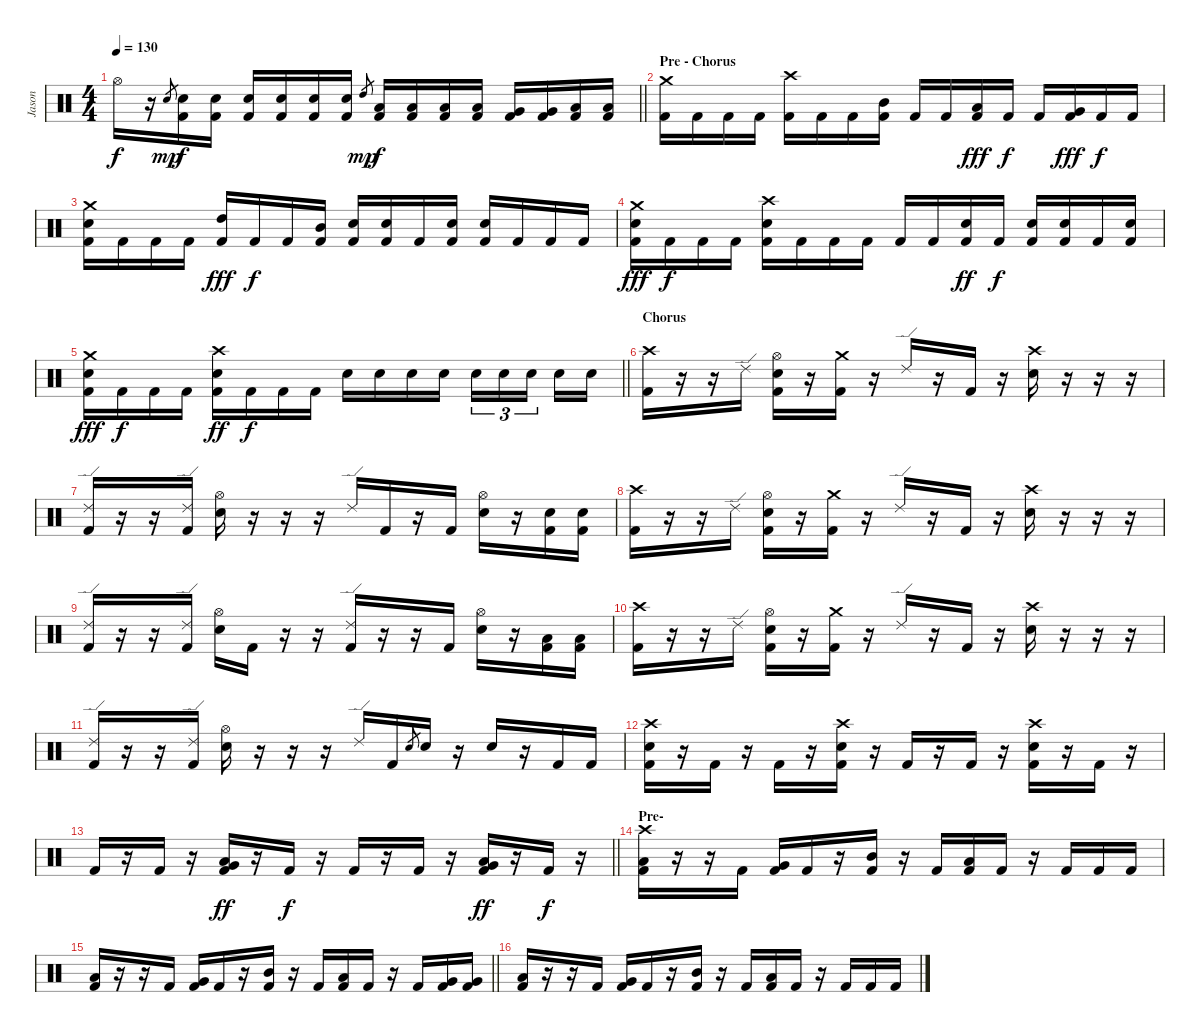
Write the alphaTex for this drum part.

\track ("Jason" "Jason") {instrument percussion}
\staff {score}
\articulation defaults
\ts (4 4)
\tempo 130
\clef neutral
\barLineRight lightlight
\ks c "Hi-Hat (open)".16{dy f}
r.16 "Electric Snare (hit)".8{gr dy mp} ("Electric Snare (hit)" "Kick (hit) 2").16{dy f} ("Electric Snare (hit)" "Kick (hit) 2").16 ("Electric Snare (hit)" "Kick (hit) 2").16 ("Electric Snare (hit)" "Kick (hit) 2").16 ("Electric Snare (hit)" "Kick (hit) 2").16 ("Electric Snare (hit)" "Kick (hit) 2").16 "High Tom (hit)".8{gr dy mp} ("Low Tom (hit)" "Kick (hit) 2").16{dy f} ("Low Tom (hit)" "Kick (hit) 2").16 ("Low Tom (hit)" "Kick (hit) 2").16 ("Low Tom (hit)" "Kick (hit) 2").16 ("Very Low Tom (hit)" "Kick (hit) 2").16 ("Very Low Tom (hit)" "Kick (hit) 2").16 ("Low Floor Tom (hit)" "Kick (hit) 2").16 ("Low Floor Tom (hit)" "Kick (hit) 2").16 |
\section ("" "Pre - Chorus")
("Crash medium (hit)" "Kick (hit) 2").16 "Kick (hit) 2".16 "Kick (hit) 2".16 "Kick (hit) 2".16 ("Crash high (hit)" "Kick (hit) 2").16 "Kick (hit) 2".16 "Kick (hit) 2".16 ("Mid Tom (hit)" "Kick (hit) 2").16 "Kick (hit) 2".16 "Kick (hit) 2".16 ("Low Tom (hit)" "Kick (hit) 2").16{dy fff} "Kick (hit) 2".16{dy f} "Kick (hit) 2".16 ("Very Low Tom (hit)" "Kick (hit) 2").16{dy fff} "Kick (hit) 2".16{dy f} "Kick (hit) 2".16 |
("Crash medium (hit)" "Electric Snare (hit)" "Kick (hit) 2").16 "Kick (hit) 2".16 "Kick (hit) 2".16 "Kick (hit) 2".16 ("High Tom (hit)" "Kick (hit) 2").16{dy fff} "Kick (hit) 2".16{dy f} "Kick (hit) 2".16 ("Mid Tom (hit)" "Kick (hit) 2").16 ("Electric Snare (hit)" "Kick (hit) 2").16 ("Electric Snare (hit)" "Kick (hit) 2").16 "Kick (hit) 2".16 ("Electric Snare (hit)" "Kick (hit) 2").16 ("Electric Snare (hit)" "Kick (hit) 2").16 "Kick (hit) 2".16 "Kick (hit) 2".16 "Kick (hit) 2".16 |
("Crash medium (hit)" "Electric Snare (hit)" "Kick (hit) 2").16{dy fff} "Kick (hit) 2".16{dy f} "Kick (hit) 2".16 "Kick (hit) 2".16 ("Crash high (hit)" "Electric Snare (hit)" "Kick (hit) 2").16 "Kick (hit) 2".16 "Kick (hit) 2".16 "Kick (hit) 2".16 "Kick (hit) 2".16 "Kick (hit) 2".16 ("Electric Snare (hit)" "Kick (hit) 2").16{dy ff} "Kick (hit) 2".16{dy f} ("Electric Snare (hit)" "Kick (hit) 2").16 ("Electric Snare (hit)" "Kick (hit) 2").16 "Kick (hit) 2".16 ("Electric Snare (hit)" "Kick (hit) 2").16 |
\barLineRight lightlight
("Crash medium (hit)" "Electric Snare (hit)" "Kick (hit) 2").16{dy fff} "Kick (hit) 2".16{dy f} "Kick (hit) 2".16 "Kick (hit) 2".16 ("Crash high (hit)" "Electric Snare (hit)" "Kick (hit) 2").16{dy ff} "Kick (hit) 2".16{dy f} "Kick (hit) 2".16 "Kick (hit) 2".16 "Electric Snare (hit)".16 "Electric Snare (hit)".16 "Electric Snare (hit)".16 "Electric Snare (hit)".16 "Electric Snare (hit)".16{tu (3 2)} "Electric Snare (hit)".16{tu (3 2)} "Electric Snare (hit)".16{tu (3 2) beam splitsecondary} "Electric Snare (hit)".16 "Electric Snare (hit)".16 |
\section ("" "Chorus")
("Crash high (hit)" "Kick (hit) 2").16 r.16 r.16 "Ride (edge) 2".16 ("Hi-Hat (open)" "Electric Snare (hit)" "Kick (hit) 2").16 r.16 ("Crash medium (hit)" "Kick (hit) 2").16 r.16 "Ride (edge) 2".16 r.16 "Kick (hit) 2".16 r.16 ("Crash high (hit)" "Electric Snare (hit)").16 r.16 r.16 r.16 |
("Ride (edge) 2" "Kick (hit) 2").16 r.16 r.16 ("Ride (edge) 2" "Kick (hit) 2").16 ("Hi-Hat (open)" "Electric Snare (hit)").16 r.16 r.16 r.16 "Ride (edge) 2".16 "Kick (hit) 2".16 r.16 "Kick (hit) 2".16 ("Hi-Hat (open)" "Electric Snare (hit)").16 r.16 ("Electric Snare (hit)" "Kick (hit) 2").16 ("Electric Snare (hit)" "Kick (hit) 2").16 |
("Crash high (hit)" "Kick (hit) 2").16 r.16 r.16 "Ride (edge) 2".16 ("Hi-Hat (open)" "Electric Snare (hit)" "Kick (hit) 2").16 r.16 ("Crash medium (hit)" "Kick (hit) 2").16 r.16 "Ride (edge) 2".16 r.16 "Kick (hit) 2".16 r.16 ("Crash high (hit)" "Electric Snare (hit)").16 r.16 r.16 r.16 |
("Ride (edge) 2" "Kick (hit) 2").16 r.16 r.16 ("Ride (edge) 2" "Kick (hit) 2").16 ("Hi-Hat (open)" "Electric Snare (hit)").16 "Kick (hit) 2".16 r.16 r.16 ("Ride (edge) 2" "Kick (hit) 2").16 r.16 r.16 "Kick (hit) 2".16 ("Hi-Hat (open)" "Electric Snare (hit)").16 r.16 ("Low Tom (hit)" "Kick (hit) 2").16 ("Low Tom (hit)" "Kick (hit) 2").16 |
("Crash high (hit)" "Kick (hit) 2").16 r.16 r.16 "Ride (edge) 2".16 ("Hi-Hat (open)" "Electric Snare (hit)" "Kick (hit) 2").16 r.16 ("Crash medium (hit)" "Kick (hit) 2").16 r.16 "Ride (edge) 2".16 r.16 "Kick (hit) 2".16 r.16 ("Crash high (hit)" "Electric Snare (hit)").16 r.16 r.16 r.16 |
("Ride (edge) 2" "Kick (hit) 2").16 r.16 r.16 ("Ride (edge) 2" "Kick (hit) 2").16 ("Hi-Hat (open)" "Electric Snare (hit)").16 r.16 r.16 r.16 "Ride (edge) 2".16 "Kick (hit) 2".16 "Electric Snare (hit)".8{gr} "Electric Snare (hit)".16 r.16 "Electric Snare (hit)".16 r.16 "Kick (hit) 2".16 "Kick (hit) 2".16 |
("Crash high (hit)" "Electric Snare (hit)" "Kick (hit) 2").16 r.16 "Kick (hit) 2".16 r.16 "Kick (hit) 2".16 r.16 ("Crash high (hit)" "Electric Snare (hit)" "Kick (hit) 2").16 r.16 "Kick (hit) 2".16 r.16 "Kick (hit) 2".16 r.16 ("Crash high (hit)" "Electric Snare (hit)" "Kick (hit) 2").16 r.16 "Kick (hit) 2".16 r.16 |
\barLineRight lightlight "Kick (hit) 2".16
r.16 "Kick (hit) 2".16 r.16 ("Very Low Tom (hit)" "Low Floor Tom (hit)" "Kick (hit) 2").16{dy ff} r.16 "Kick (hit) 2".16{dy f} r.16 "Kick (hit) 2".16 r.16 "Kick (hit) 2".16 r.16 ("Very Low Tom (hit)" "Low Floor Tom (hit)" "Kick (hit) 2").16{dy ff} r.16 "Kick (hit) 2".16{dy f} r.16 |
\section ("" "Pre-")
("Crash high (hit)" "Low Floor Tom (hit)" "Kick (hit) 2").16 r.16 r.16 "Kick (hit) 2".16 ("Very Low Tom (hit)" "Kick (hit) 2").16 "Kick (hit) 2".16 r.16 ("Mid Tom (hit)" "Kick (hit) 2").16 r.16 "Kick (hit) 2".16 ("Low Tom (hit)" "Kick (hit) 2").16 "Kick (hit) 2".16 r.16 "Kick (hit) 2".16 "Kick (hit) 2".16 "Kick (hit) 2".16 |
\barLineRight lightlight
("Low Floor Tom (hit)" "Kick (hit) 2").16 r.16 r.16 "Kick (hit) 2".16 ("Very Low Tom (hit)" "Kick (hit) 2").16 "Kick (hit) 2".16 r.16 ("Mid Tom (hit)" "Kick (hit) 2").16 r.16 "Kick (hit) 2".16 ("Low Tom (hit)" "Kick (hit) 2").16 "Kick (hit) 2".16 r.16 "Kick (hit) 2".16 ("Very Low Tom (hit)" "Kick (hit) 2").16 ("Very Low Tom (hit)" "Kick (hit) 2").16 |
("Low Floor Tom (hit)" "Kick (hit) 2").16 r.16 r.16 "Kick (hit) 2".16 ("Very Low Tom (hit)" "Kick (hit) 2").16 "Kick (hit) 2".16 r.16 ("Mid Tom (hit)" "Kick (hit) 2").16 r.16 "Kick (hit) 2".16 ("Low Tom (hit)" "Kick (hit) 2").16 "Kick (hit) 2".16 r.16 "Kick (hit) 2".16 "Kick (hit) 2".16 "Kick (hit) 2".16
